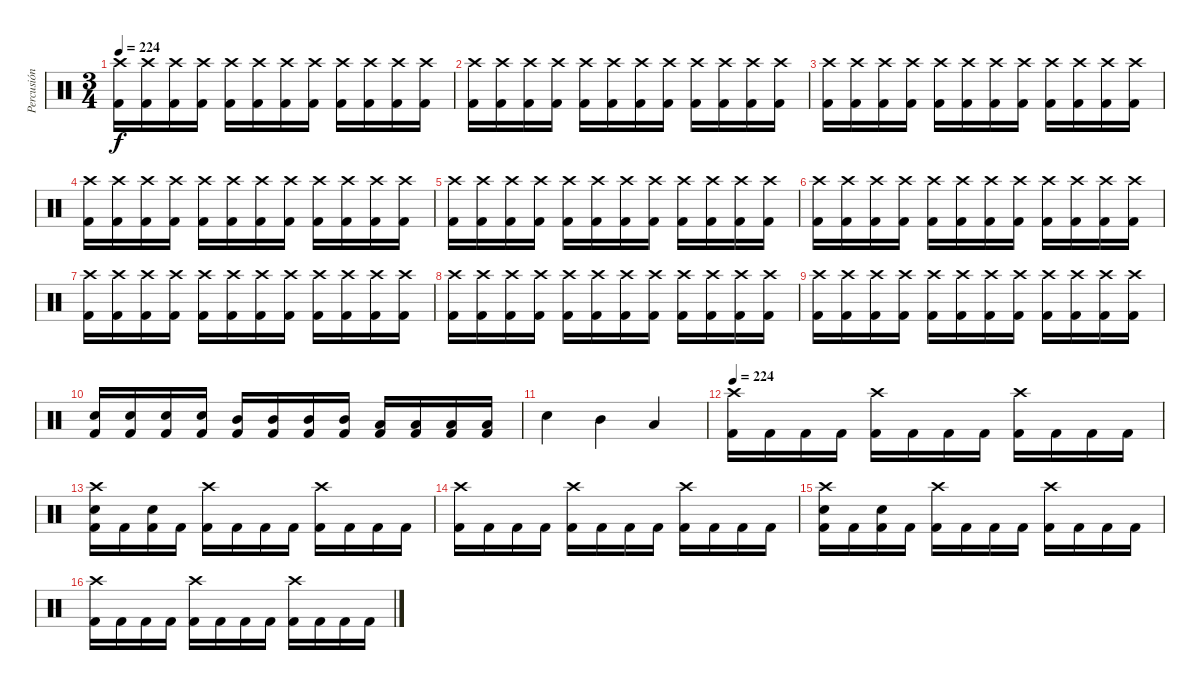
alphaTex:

\track ("Percusión" "Percusión") {instrument percussion}
\staff {score}
\articulation defaults
\ts (3 4)
\tempo 224
\clef neutral
\ks c
("Crash high (hit)" "Kick (hit) 2").16{dy f} ("Crash high (hit)" "Kick (hit) 2").16 ("Crash high (hit)" "Kick (hit) 2").16 ("Crash high (hit)" "Kick (hit) 2").16 ("Crash high (hit)" "Kick (hit) 2").16 ("Crash high (hit)" "Kick (hit) 2").16 ("Crash high (hit)" "Kick (hit) 2").16 ("Crash high (hit)" "Kick (hit) 2").16 ("Crash high (hit)" "Kick (hit) 2").16 ("Crash high (hit)" "Kick (hit) 2").16 ("Crash high (hit)" "Kick (hit) 2").16 ("Crash high (hit)" "Kick (hit) 2").16 |
("Crash high (hit)" "Kick (hit) 2").16 ("Crash high (hit)" "Kick (hit) 2").16 ("Crash high (hit)" "Kick (hit) 2").16 ("Crash high (hit)" "Kick (hit) 2").16 ("Crash high (hit)" "Kick (hit) 2").16 ("Crash high (hit)" "Kick (hit) 2").16 ("Crash high (hit)" "Kick (hit) 2").16 ("Crash high (hit)" "Kick (hit) 2").16 ("Crash high (hit)" "Kick (hit) 2").16 ("Crash high (hit)" "Kick (hit) 2").16 ("Crash high (hit)" "Kick (hit) 2").16 ("Crash high (hit)" "Kick (hit) 2").16 |
("Crash high (hit)" "Kick (hit) 2").16 ("Crash high (hit)" "Kick (hit) 2").16 ("Crash high (hit)" "Kick (hit) 2").16 ("Crash high (hit)" "Kick (hit) 2").16 ("Crash high (hit)" "Kick (hit) 2").16 ("Crash high (hit)" "Kick (hit) 2").16 ("Crash high (hit)" "Kick (hit) 2").16 ("Crash high (hit)" "Kick (hit) 2").16 ("Crash high (hit)" "Kick (hit) 2").16 ("Crash high (hit)" "Kick (hit) 2").16 ("Crash high (hit)" "Kick (hit) 2").16 ("Crash high (hit)" "Kick (hit) 2").16 |
("Crash high (hit)" "Kick (hit) 2").16 ("Crash high (hit)" "Kick (hit) 2").16 ("Crash high (hit)" "Kick (hit) 2").16 ("Crash high (hit)" "Kick (hit) 2").16 ("Crash high (hit)" "Kick (hit) 2").16 ("Crash high (hit)" "Kick (hit) 2").16 ("Crash high (hit)" "Kick (hit) 2").16 ("Crash high (hit)" "Kick (hit) 2").16 ("Crash high (hit)" "Kick (hit) 2").16 ("Crash high (hit)" "Kick (hit) 2").16 ("Crash high (hit)" "Kick (hit) 2").16 ("Crash high (hit)" "Kick (hit) 2").16 |
("Crash high (hit)" "Kick (hit) 2").16 ("Crash high (hit)" "Kick (hit) 2").16 ("Crash high (hit)" "Kick (hit) 2").16 ("Crash high (hit)" "Kick (hit) 2").16 ("Crash high (hit)" "Kick (hit) 2").16 ("Crash high (hit)" "Kick (hit) 2").16 ("Crash high (hit)" "Kick (hit) 2").16 ("Crash high (hit)" "Kick (hit) 2").16 ("Crash high (hit)" "Kick (hit) 2").16 ("Crash high (hit)" "Kick (hit) 2").16 ("Crash high (hit)" "Kick (hit) 2").16 ("Crash high (hit)" "Kick (hit) 2").16 |
("Crash high (hit)" "Kick (hit) 2").16 ("Crash high (hit)" "Kick (hit) 2").16 ("Crash high (hit)" "Kick (hit) 2").16 ("Crash high (hit)" "Kick (hit) 2").16 ("Crash high (hit)" "Kick (hit) 2").16 ("Crash high (hit)" "Kick (hit) 2").16 ("Crash high (hit)" "Kick (hit) 2").16 ("Crash high (hit)" "Kick (hit) 2").16 ("Crash high (hit)" "Kick (hit) 2").16 ("Crash high (hit)" "Kick (hit) 2").16 ("Crash high (hit)" "Kick (hit) 2").16 ("Crash high (hit)" "Kick (hit) 2").16 |
("Crash high (hit)" "Kick (hit) 2").16 ("Crash high (hit)" "Kick (hit) 2").16 ("Crash high (hit)" "Kick (hit) 2").16 ("Crash high (hit)" "Kick (hit) 2").16 ("Crash high (hit)" "Kick (hit) 2").16 ("Crash high (hit)" "Kick (hit) 2").16 ("Crash high (hit)" "Kick (hit) 2").16 ("Crash high (hit)" "Kick (hit) 2").16 ("Crash high (hit)" "Kick (hit) 2").16 ("Crash high (hit)" "Kick (hit) 2").16 ("Crash high (hit)" "Kick (hit) 2").16 ("Crash high (hit)" "Kick (hit) 2").16 |
("Crash high (hit)" "Kick (hit) 2").16 ("Crash high (hit)" "Kick (hit) 2").16 ("Crash high (hit)" "Kick (hit) 2").16 ("Crash high (hit)" "Kick (hit) 2").16 ("Crash high (hit)" "Kick (hit) 2").16 ("Crash high (hit)" "Kick (hit) 2").16 ("Crash high (hit)" "Kick (hit) 2").16 ("Crash high (hit)" "Kick (hit) 2").16 ("Crash high (hit)" "Kick (hit) 2").16 ("Crash high (hit)" "Kick (hit) 2").16 ("Crash high (hit)" "Kick (hit) 2").16 ("Crash high (hit)" "Kick (hit) 2").16 |
("Crash high (hit)" "Kick (hit) 2").16 ("Crash high (hit)" "Kick (hit) 2").16 ("Crash high (hit)" "Kick (hit) 2").16 ("Crash high (hit)" "Kick (hit) 2").16 ("Crash high (hit)" "Kick (hit) 2").16 ("Crash high (hit)" "Kick (hit) 2").16 ("Crash high (hit)" "Kick (hit) 2").16 ("Crash high (hit)" "Kick (hit) 2").16 ("Crash high (hit)" "Kick (hit) 2").16 ("Crash high (hit)" "Kick (hit) 2").16 ("Crash high (hit)" "Kick (hit) 2").16 ("Crash high (hit)" "Kick (hit) 2").16 |
("Electric Snare (hit)" "Kick (hit) 2").16 ("Electric Snare (hit)" "Kick (hit) 2").16 ("Electric Snare (hit)" "Kick (hit) 2").16 ("Electric Snare (hit)" "Kick (hit) 2").16 ("Mid Tom (hit)" "Kick (hit) 2").16 ("Mid Tom (hit)" "Kick (hit) 2").16 ("Mid Tom (hit)" "Kick (hit) 2").16 ("Mid Tom (hit)" "Kick (hit) 2").16 ("Low Tom (hit)" "Kick (hit) 2").16 ("Low Tom (hit)" "Kick (hit) 2").16 ("Low Tom (hit)" "Kick (hit) 2").16 ("Low Tom (hit)" "Kick (hit) 2").16 |
"Electric Snare (hit)".4 "Mid Tom (hit)".4 "Low Tom (hit)".4 |
\tempo 224
("Crash high (hit)" "Kick (hit) 2").16 "Kick (hit) 2".16 "Kick (hit) 2".16 "Kick (hit) 2".16 ("Crash high (hit)" "Kick (hit) 2").16 "Kick (hit) 2".16 "Kick (hit) 2".16 "Kick (hit) 2".16 ("Crash high (hit)" "Kick (hit) 2").16 "Kick (hit) 2".16 "Kick (hit) 2".16 "Kick (hit) 2".16 |
("Crash high (hit)" "Electric Snare (hit)" "Kick (hit) 2").16 "Kick (hit) 2".16 ("Electric Snare (hit)" "Kick (hit) 2").16 "Kick (hit) 2".16 ("Crash high (hit)" "Kick (hit) 2").16 "Kick (hit) 2".16 "Kick (hit) 2".16 "Kick (hit) 2".16 ("Crash high (hit)" "Kick (hit) 2").16 "Kick (hit) 2".16 "Kick (hit) 2".16 "Kick (hit) 2".16 |
("Crash high (hit)" "Kick (hit) 2").16 "Kick (hit) 2".16 "Kick (hit) 2".16 "Kick (hit) 2".16 ("Crash high (hit)" "Kick (hit) 2").16 "Kick (hit) 2".16 "Kick (hit) 2".16 "Kick (hit) 2".16 ("Crash high (hit)" "Kick (hit) 2").16 "Kick (hit) 2".16 "Kick (hit) 2".16 "Kick (hit) 2".16 |
("Crash high (hit)" "Electric Snare (hit)" "Kick (hit) 2").16 "Kick (hit) 2".16 ("Electric Snare (hit)" "Kick (hit) 2").16 "Kick (hit) 2".16 ("Crash high (hit)" "Kick (hit) 2").16 "Kick (hit) 2".16 "Kick (hit) 2".16 "Kick (hit) 2".16 ("Crash high (hit)" "Kick (hit) 2").16 "Kick (hit) 2".16 "Kick (hit) 2".16 "Kick (hit) 2".16 |
("Crash high (hit)" "Kick (hit) 2").16 "Kick (hit) 2".16 "Kick (hit) 2".16 "Kick (hit) 2".16 ("Crash high (hit)" "Kick (hit) 2").16 "Kick (hit) 2".16 "Kick (hit) 2".16 "Kick (hit) 2".16 ("Crash high (hit)" "Kick (hit) 2").16 "Kick (hit) 2".16 "Kick (hit) 2".16 "Kick (hit) 2".16
